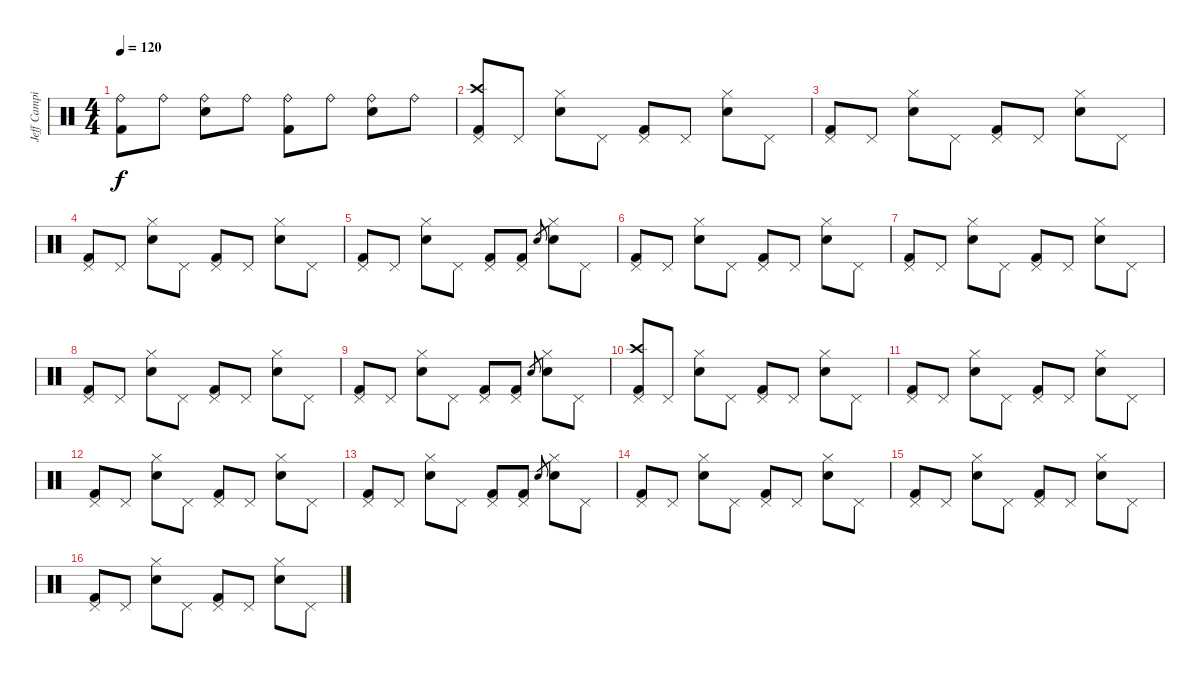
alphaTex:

\track ("Jeff Campitelli" "Jeff Campi") {instrument percussion}
\staff {score}
\articulation defaults
\ts (4 4)
\tempo 120
\clef neutral
\ks c
("Ride (bell)" "Kick (hit) 2").8{dy f} "Ride (bell)".8 ("Ride (bell)" "Snare (hit) 2").8 "Ride (bell)".8 ("Ride (bell)" "Kick (hit) 2").8 "Ride (bell)".8 ("Ride (bell)" "Snare (hit) 2").8 "Ride (bell)".8 |
("Crash high (hit)" "Pedal Hi-Hat (hit)" "Kick (hit) 2").8 "Pedal Hi-Hat (hit)".8 ("Hi-Hat (closed)" "Snare (hit) 2").8 "Pedal Hi-Hat (hit)".8 ("Pedal Hi-Hat (hit)" "Kick (hit) 2").8 "Pedal Hi-Hat (hit)".8 ("Hi-Hat (closed)" "Snare (hit) 2").8 "Pedal Hi-Hat (hit)".8 |
("Pedal Hi-Hat (hit)" "Kick (hit) 2").8 "Pedal Hi-Hat (hit)".8 ("Hi-Hat (closed)" "Snare (hit) 2").8 "Pedal Hi-Hat (hit)".8 ("Pedal Hi-Hat (hit)" "Kick (hit) 2").8 "Pedal Hi-Hat (hit)".8 ("Hi-Hat (closed)" "Snare (hit) 2").8 "Pedal Hi-Hat (hit)".8 |
("Pedal Hi-Hat (hit)" "Kick (hit) 2").8 "Pedal Hi-Hat (hit)".8 ("Hi-Hat (closed)" "Snare (hit) 2").8 "Pedal Hi-Hat (hit)".8 ("Pedal Hi-Hat (hit)" "Kick (hit) 2").8 "Pedal Hi-Hat (hit)".8 ("Hi-Hat (closed)" "Snare (hit) 2").8 "Pedal Hi-Hat (hit)".8 |
("Pedal Hi-Hat (hit)" "Kick (hit) 2").8 "Pedal Hi-Hat (hit)".8 ("Hi-Hat (closed)" "Snare (hit) 2").8 "Pedal Hi-Hat (hit)".8 ("Pedal Hi-Hat (hit)" "Kick (hit) 2").8 ("Pedal Hi-Hat (hit)" "Kick (hit) 2").8 "Snare (hit) 2".8{gr} ("Hi-Hat (closed)" "Snare (hit) 2").8 "Pedal Hi-Hat (hit)".8 |
("Pedal Hi-Hat (hit)" "Kick (hit) 2").8 "Pedal Hi-Hat (hit)".8 ("Hi-Hat (closed)" "Snare (hit) 2").8 "Pedal Hi-Hat (hit)".8 ("Pedal Hi-Hat (hit)" "Kick (hit) 2").8 "Pedal Hi-Hat (hit)".8 ("Hi-Hat (closed)" "Snare (hit) 2").8 "Pedal Hi-Hat (hit)".8 |
("Pedal Hi-Hat (hit)" "Kick (hit) 2").8 "Pedal Hi-Hat (hit)".8 ("Hi-Hat (closed)" "Snare (hit) 2").8 "Pedal Hi-Hat (hit)".8 ("Pedal Hi-Hat (hit)" "Kick (hit) 2").8 "Pedal Hi-Hat (hit)".8 ("Hi-Hat (closed)" "Snare (hit) 2").8 "Pedal Hi-Hat (hit)".8 |
("Pedal Hi-Hat (hit)" "Kick (hit) 2").8 "Pedal Hi-Hat (hit)".8 ("Hi-Hat (closed)" "Snare (hit) 2").8 "Pedal Hi-Hat (hit)".8 ("Pedal Hi-Hat (hit)" "Kick (hit) 2").8 "Pedal Hi-Hat (hit)".8 ("Hi-Hat (closed)" "Snare (hit) 2").8 "Pedal Hi-Hat (hit)".8 |
("Pedal Hi-Hat (hit)" "Kick (hit) 2").8 "Pedal Hi-Hat (hit)".8 ("Hi-Hat (closed)" "Snare (hit) 2").8 "Pedal Hi-Hat (hit)".8 ("Pedal Hi-Hat (hit)" "Kick (hit) 2").8 ("Pedal Hi-Hat (hit)" "Kick (hit) 2").8 "Snare (hit) 2".8{gr} ("Hi-Hat (closed)" "Snare (hit) 2").8 "Pedal Hi-Hat (hit)".8 |
("Crash high (hit)" "Pedal Hi-Hat (hit)" "Kick (hit) 2").8 "Pedal Hi-Hat (hit)".8 ("Hi-Hat (closed)" "Snare (hit) 2").8 "Pedal Hi-Hat (hit)".8 ("Pedal Hi-Hat (hit)" "Kick (hit) 2").8 "Pedal Hi-Hat (hit)".8 ("Hi-Hat (closed)" "Snare (hit) 2").8 "Pedal Hi-Hat (hit)".8 |
("Pedal Hi-Hat (hit)" "Kick (hit) 2").8 "Pedal Hi-Hat (hit)".8 ("Hi-Hat (closed)" "Snare (hit) 2").8 "Pedal Hi-Hat (hit)".8 ("Pedal Hi-Hat (hit)" "Kick (hit) 2").8 "Pedal Hi-Hat (hit)".8 ("Hi-Hat (closed)" "Snare (hit) 2").8 "Pedal Hi-Hat (hit)".8 |
("Pedal Hi-Hat (hit)" "Kick (hit) 2").8 "Pedal Hi-Hat (hit)".8 ("Hi-Hat (closed)" "Snare (hit) 2").8 "Pedal Hi-Hat (hit)".8 ("Pedal Hi-Hat (hit)" "Kick (hit) 2").8 "Pedal Hi-Hat (hit)".8 ("Hi-Hat (closed)" "Snare (hit) 2").8 "Pedal Hi-Hat (hit)".8 |
("Pedal Hi-Hat (hit)" "Kick (hit) 2").8 "Pedal Hi-Hat (hit)".8 ("Hi-Hat (closed)" "Snare (hit) 2").8 "Pedal Hi-Hat (hit)".8 ("Pedal Hi-Hat (hit)" "Kick (hit) 2").8 ("Pedal Hi-Hat (hit)" "Kick (hit) 2").8 "Snare (hit) 2".8{gr} ("Hi-Hat (closed)" "Snare (hit) 2").8 "Pedal Hi-Hat (hit)".8 |
("Pedal Hi-Hat (hit)" "Kick (hit) 2").8 "Pedal Hi-Hat (hit)".8 ("Hi-Hat (closed)" "Snare (hit) 2").8 "Pedal Hi-Hat (hit)".8 ("Pedal Hi-Hat (hit)" "Kick (hit) 2").8 "Pedal Hi-Hat (hit)".8 ("Hi-Hat (closed)" "Snare (hit) 2").8 "Pedal Hi-Hat (hit)".8 |
("Pedal Hi-Hat (hit)" "Kick (hit) 2").8 "Pedal Hi-Hat (hit)".8 ("Hi-Hat (closed)" "Snare (hit) 2").8 "Pedal Hi-Hat (hit)".8 ("Pedal Hi-Hat (hit)" "Kick (hit) 2").8 "Pedal Hi-Hat (hit)".8 ("Hi-Hat (closed)" "Snare (hit) 2").8 "Pedal Hi-Hat (hit)".8 |
("Pedal Hi-Hat (hit)" "Kick (hit) 2").8 "Pedal Hi-Hat (hit)".8 ("Hi-Hat (closed)" "Snare (hit) 2").8 "Pedal Hi-Hat (hit)".8 ("Pedal Hi-Hat (hit)" "Kick (hit) 2").8 "Pedal Hi-Hat (hit)".8 ("Hi-Hat (closed)" "Snare (hit) 2").8 "Pedal Hi-Hat (hit)".8
